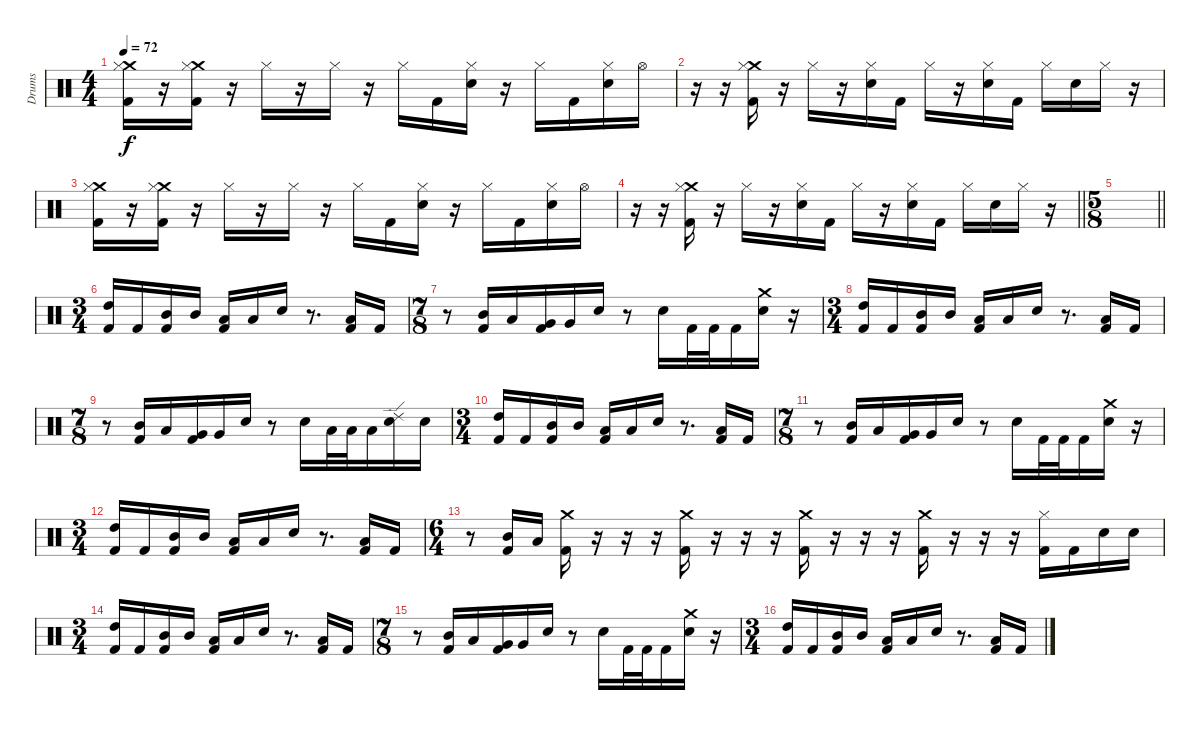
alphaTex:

\track ("Drums" "Drums") {instrument percussion}
\staff {score}
\articulation defaults
\ts (4 4)
\tempo 72
\clef neutral
\ks c
("Crash medium (hit)" "Hi-Hat (closed)" "Kick (hit) 2").16{dy f} r.16 ("Crash medium (hit)" "Hi-Hat (closed)" "Kick (hit) 2").16 r.16 "Hi-Hat (closed)".16 r.16 "Hi-Hat (closed)".16 r.16 "Hi-Hat (closed)".16 "Kick (hit) 2".16 ("Hi-Hat (closed)" "Snare (hit) 2").16 r.16 "Hi-Hat (closed)".16 "Kick (hit) 2".16 ("Hi-Hat (closed)" "Snare (hit) 2").16 "Hi-Hat (open)".16 |
r.16 r.16 ("Crash medium (hit)" "Hi-Hat (closed)" "Kick (hit) 2").16 r.16 "Hi-Hat (closed)".16 r.16 ("Hi-Hat (closed)" "Snare (hit) 2").16 "Kick (hit) 2".16 "Hi-Hat (closed)".16 r.16 ("Hi-Hat (closed)" "Snare (hit) 2").16 "Kick (hit) 2".16 "Hi-Hat (closed)".16 "Snare (hit) 2".16 "Hi-Hat (closed)".16 r.16 |
("Crash medium (hit)" "Hi-Hat (closed)" "Kick (hit) 2").16 r.16 ("Crash medium (hit)" "Hi-Hat (closed)" "Kick (hit) 2").16 r.16 "Hi-Hat (closed)".16 r.16 "Hi-Hat (closed)".16 r.16 "Hi-Hat (closed)".16 "Kick (hit) 2".16 ("Hi-Hat (closed)" "Snare (hit) 2").16 r.16 "Hi-Hat (closed)".16 "Kick (hit) 2".16 ("Hi-Hat (closed)" "Snare (hit) 2").16 "Hi-Hat (open)".16 |
\barLineRight lightlight
r.16 r.16 ("Crash medium (hit)" "Hi-Hat (closed)" "Kick (hit) 2").16 r.16 "Hi-Hat (closed)".16 r.16 ("Hi-Hat (closed)" "Snare (hit) 2").16 "Kick (hit) 2".16 "Hi-Hat (closed)".16 r.16 ("Hi-Hat (closed)" "Snare (hit) 2").16 "Kick (hit) 2".16 "Hi-Hat (closed)".16 "Snare (hit) 2".16 "Hi-Hat (closed)".16 r.16 |
\ts (5 8)
\barLineRight lightlight
|
\ts (3 4)
\section ("" "")
("High Tom (hit)" "Kick (hit) 2").16 "Kick (hit) 2".16 ("Mid Tom (hit)" "Kick (hit) 2").16 "Mid Tom (hit)".16 ("Low Tom (hit)" "Kick (hit) 2").16 "Low Tom (hit)".16 "Snare (hit) 2".16 r.8{d} ("Low Tom (hit)" "Kick (hit) 2").16 "Kick (hit) 2".16 |
\ts (7 8)
r.8 ("Mid Tom (hit)" "Kick (hit) 2").16 "Low Tom (hit)".16 ("Very Low Tom (hit)" "Kick (hit) 2").16 "Very Low Tom (hit)".16 "Snare (hit) 2".16 r.8 "Snare (hit) 2".16 "Kick (hit) 2".32 "Kick (hit) 2".32 "Kick (hit) 2".16 ("Crash medium (hit)" "Snare (hit) 2").16 r.16 |
\ts (3 4)
("High Tom (hit)" "Kick (hit) 2").16 "Kick (hit) 2".16 ("Mid Tom (hit)" "Kick (hit) 2").16 "Mid Tom (hit)".16 ("Low Tom (hit)" "Kick (hit) 2").16 "Low Tom (hit)".16 "Snare (hit) 2".16 r.8{d} ("Low Tom (hit)" "Kick (hit) 2").16 "Kick (hit) 2".16 |
\ts (7 8)
r.8 ("Mid Tom (hit)" "Kick (hit) 2").16 "Low Tom (hit)".16 ("Very Low Tom (hit)" "Kick (hit) 2").16 "Very Low Tom (hit)".16 "Snare (hit) 2".16 r.8 "Snare (hit) 2".16 "Low Tom (hit)".32 "Low Tom (hit)".32 "Low Tom (hit)".16 ("Ride (edge) 2" "Snare (hit) 2").16 "Snare (hit) 2".16 |
\ts (3 4)
("High Tom (hit)" "Kick (hit) 2").16 "Kick (hit) 2".16 ("Mid Tom (hit)" "Kick (hit) 2").16 "Mid Tom (hit)".16 ("Low Tom (hit)" "Kick (hit) 2").16 "Low Tom (hit)".16 "Snare (hit) 2".16 r.8{d} ("Low Tom (hit)" "Kick (hit) 2").16 "Kick (hit) 2".16 |
\ts (7 8)
r.8 ("Mid Tom (hit)" "Kick (hit) 2").16 "Low Tom (hit)".16 ("Very Low Tom (hit)" "Kick (hit) 2").16 "Very Low Tom (hit)".16 "Snare (hit) 2".16 r.8 "Snare (hit) 2".16 "Kick (hit) 2".32 "Kick (hit) 2".32 "Kick (hit) 2".16 ("Crash medium (hit)" "Snare (hit) 2").16 r.16 |
\ts (3 4)
("High Tom (hit)" "Kick (hit) 2").16 "Kick (hit) 2".16 ("Mid Tom (hit)" "Kick (hit) 2").16 "Mid Tom (hit)".16 ("Low Tom (hit)" "Kick (hit) 2").16 "Low Tom (hit)".16 "Snare (hit) 2".16 r.8{d} ("Low Tom (hit)" "Kick (hit) 2").16 "Kick (hit) 2".16 |
\ts (6 4)
r.8 ("Mid Tom (hit)" "Kick (hit) 2").16 "Low Tom (hit)".16 ("Crash medium (hit)" "Kick (hit) 2").16 r.16 r.16 r.16 ("Crash medium (hit)" "Kick (hit) 2").16 r.16 r.16 r.16 ("Crash medium (hit)" "Kick (hit) 2").16 r.16 r.16 r.16 ("Crash medium (hit)" "Kick (hit) 2").16 r.16 r.16 r.16 ("Hi-Hat (closed)" "Kick (hit) 2").16 "Kick (hit) 2".16 "Snare (hit) 2".16 "Snare (hit) 2".16 |
\ts (3 4)
("High Tom (hit)" "Kick (hit) 2").16 "Kick (hit) 2".16 ("Mid Tom (hit)" "Kick (hit) 2").16 "Mid Tom (hit)".16 ("Low Tom (hit)" "Kick (hit) 2").16 "Low Tom (hit)".16 "Snare (hit) 2".16 r.8{d} ("Low Tom (hit)" "Kick (hit) 2").16 "Kick (hit) 2".16 |
\ts (7 8)
r.8 ("Mid Tom (hit)" "Kick (hit) 2").16 "Low Tom (hit)".16 ("Very Low Tom (hit)" "Kick (hit) 2").16 "Very Low Tom (hit)".16 "Snare (hit) 2".16 r.8 "Snare (hit) 2".16 "Kick (hit) 2".32 "Kick (hit) 2".32 "Kick (hit) 2".16 ("Crash medium (hit)" "Snare (hit) 2").16 r.16 |
\ts (3 4)
("High Tom (hit)" "Kick (hit) 2").16 "Kick (hit) 2".16 ("Mid Tom (hit)" "Kick (hit) 2").16 "Mid Tom (hit)".16 ("Low Tom (hit)" "Kick (hit) 2").16 "Low Tom (hit)".16 "Snare (hit) 2".16 r.8{d} ("Low Tom (hit)" "Kick (hit) 2").16 "Kick (hit) 2".16
